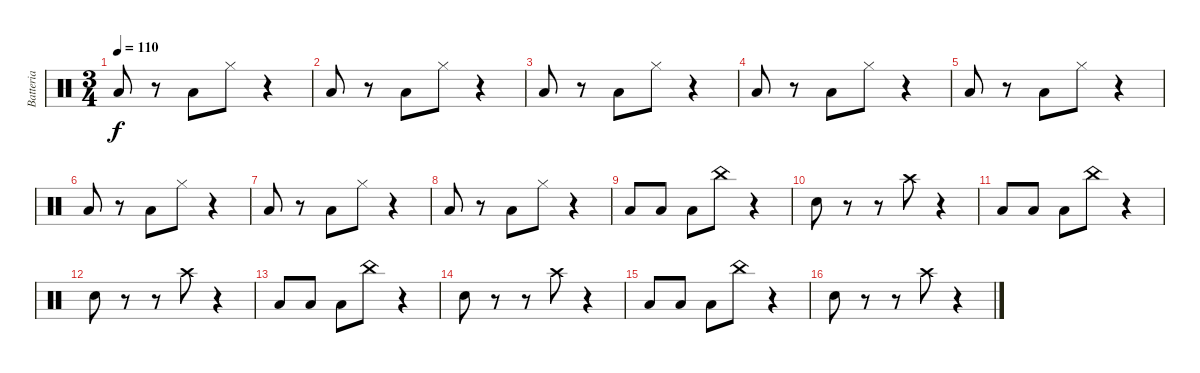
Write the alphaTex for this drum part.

\track ("Batteria" "Batteria") {instrument percussion}
\staff {score}
\articulation defaults
\ts (3 4)
\tempo 110
\clef neutral
\ks c "Low Tom (hit)".8{dy f}
r.8 "Low Tom (hit)".8 "Hi-Hat (closed)".8 r.4 |
"Low Tom (hit)".8 r.8 "Low Tom (hit)".8 "Hi-Hat (closed)".8 r.4 |
"Low Tom (hit)".8 r.8 "Low Tom (hit)".8 "Hi-Hat (closed)".8 r.4 |
"Low Tom (hit)".8 r.8 "Low Tom (hit)".8 "Hi-Hat (closed)".8 r.4 |
"Low Tom (hit)".8 r.8 "Low Tom (hit)".8 "Hi-Hat (closed)".8 r.4 |
"Low Tom (hit)".8 r.8 "Low Tom (hit)".8 "Hi-Hat (closed)".8 r.4 |
"Low Tom (hit)".8 r.8 "Low Tom (hit)".8 "Hi-Hat (closed)".8 r.4 |
"Low Tom (hit)".8 r.8 "Low Tom (hit)".8 "Hi-Hat (closed)".8 r.4 |
"Low Tom (hit)".8 "Low Tom (hit)".8 "Low Tom (hit)".8 "China (hit)".8 r.4 |
"Electric Snare (hit)".8 r.8 r.8 "Crash high (hit)".8 r.4 |
"Low Tom (hit)".8 "Low Tom (hit)".8 "Low Tom (hit)".8 "China (hit)".8 r.4 |
"Electric Snare (hit)".8 r.8 r.8 "Crash high (hit)".8 r.4 |
"Low Tom (hit)".8 "Low Tom (hit)".8 "Low Tom (hit)".8 "China (hit)".8 r.4 |
"Electric Snare (hit)".8 r.8 r.8 "Crash high (hit)".8 r.4 |
"Low Tom (hit)".8 "Low Tom (hit)".8 "Low Tom (hit)".8 "China (hit)".8 r.4 |
"Electric Snare (hit)".8 r.8 r.8 "Crash high (hit)".8 r.4
